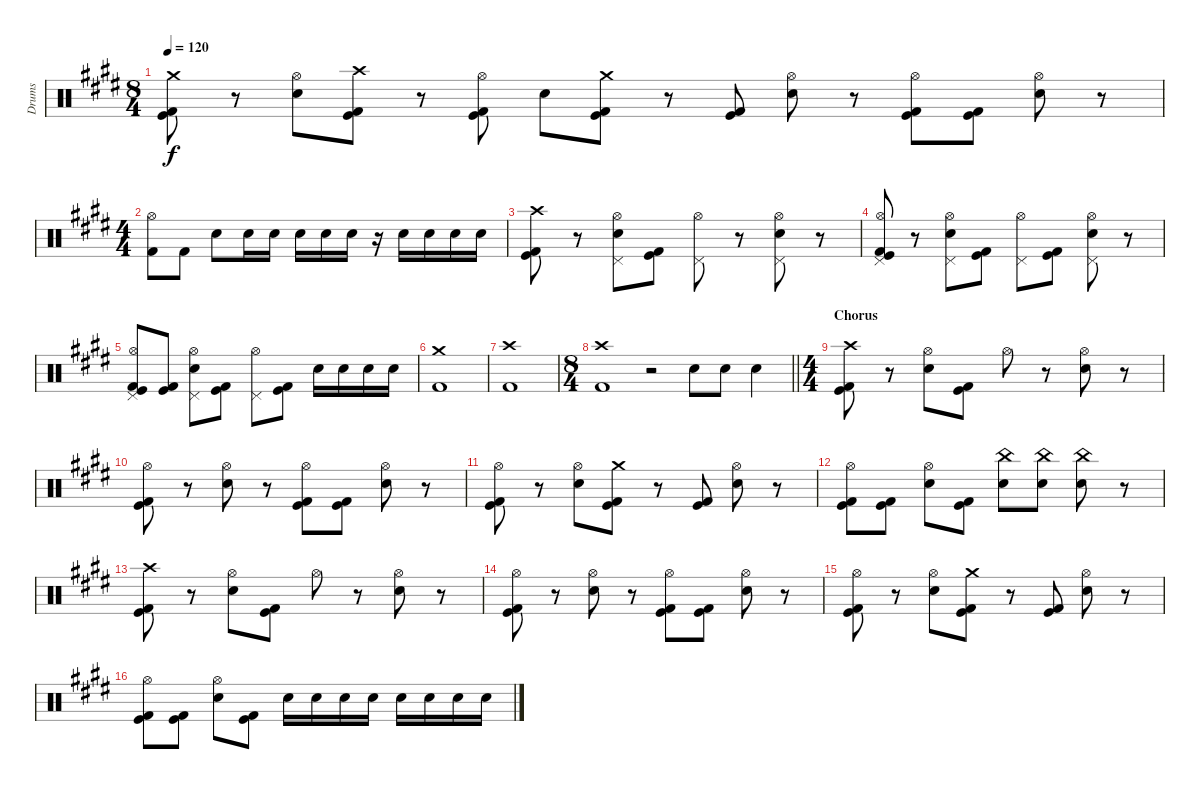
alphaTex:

\track ("Drums" "Drums") {instrument percussion}
\staff {score}
\articulation defaults
\ts (8 4)
\tempo 120
\clef neutral
\ks e
("Crash medium (hit)" "Kick (hit)" "Kick (hit) 2").8{dy f} r.8 ("Hi-Hat (open)" "Electric Snare (hit)").8 ("Crash high (hit)" "Kick (hit)" "Kick (hit) 2").8 r.8 ("Hi-Hat (open)" "Kick (hit)" "Kick (hit) 2").8 "Electric Snare (hit)".8 ("Crash medium (hit)" "Kick (hit)" "Kick (hit) 2").8 r.8 ("Kick (hit)" "Kick (hit) 2").8 ("Hi-Hat (open)" "Electric Snare (hit)").8 r.8 ("Hi-Hat (open)" "Kick (hit)" "Kick (hit) 2").8 ("Kick (hit)" "Kick (hit) 2").8 ("Hi-Hat (open)" "Electric Snare (hit)").8 r.8 |
\ts (4 4)
("Hi-Hat (open)" "Kick (hit) 2").8 "Kick (hit) 2".8 "Electric Snare (hit)".8 "Electric Snare (hit)".16 "Electric Snare (hit)".16 "Electric Snare (hit)".16 "Electric Snare (hit)".16 "Electric Snare (hit)".16 r.16 "Electric Snare (hit)".16 "Electric Snare (hit)".16 "Electric Snare (hit)".16 "Electric Snare (hit)".16 |
("Crash high (hit)" "Kick (hit)" "Kick (hit) 2").8 r.8 ("Hi-Hat (open)" "Pedal Hi-Hat (hit)" "Electric Snare (hit)").8 ("Kick (hit)" "Kick (hit) 2").8 ("Hi-Hat (open)" "Pedal Hi-Hat (hit)").8 r.8 ("Hi-Hat (open)" "Pedal Hi-Hat (hit)" "Electric Snare (hit)").8 r.8 |
("Hi-Hat (open)" "Pedal Hi-Hat (hit)" "Kick (hit)" "Kick (hit) 2").8 r.8 ("Hi-Hat (open)" "Pedal Hi-Hat (hit)" "Electric Snare (hit)").8 ("Kick (hit)" "Kick (hit) 2").8 ("Hi-Hat (open)" "Pedal Hi-Hat (hit)").8 ("Kick (hit) 2" "Kick (hit)").8 ("Hi-Hat (open)" "Pedal Hi-Hat (hit)" "Electric Snare (hit)").8 r.8 |
("Hi-Hat (open)" "Pedal Hi-Hat (hit)" "Kick (hit)" "Kick (hit) 2").8 ("Kick (hit) 2" "Kick (hit)").8 ("Hi-Hat (open)" "Pedal Hi-Hat (hit)" "Electric Snare (hit)").8 ("Kick (hit)" "Kick (hit) 2").8 ("Hi-Hat (open)" "Pedal Hi-Hat (hit)").8 ("Kick (hit)" "Kick (hit) 2").8 "Electric Snare (hit)".16 "Electric Snare (hit)".16 "Electric Snare (hit)".16 "Electric Snare (hit)".16 |
("Crash medium (hit)" "Kick (hit) 2").1 |
("Crash high (hit)" "Kick (hit) 2").1 |
\ts (8 4)
\barLineRight lightlight
("Crash high (hit)" "Kick (hit) 2").1 r.2 "Electric Snare (hit)".8 "Electric Snare (hit)".8 "Electric Snare (hit)".4 |
\ts (4 4)
\section ("" "Chorus")
("Crash high (hit)" "Kick (hit)" "Kick (hit) 2").8 r.8 ("Hi-Hat (open)" "Electric Snare (hit)").8 ("Kick (hit)" "Kick (hit) 2").8 "Hi-Hat (open)".8 r.8 ("Hi-Hat (open)" "Electric Snare (hit)").8 r.8 |
("Hi-Hat (open)" "Kick (hit)" "Kick (hit) 2").8 r.8 ("Hi-Hat (open)" "Electric Snare (hit)").8 r.8 ("Hi-Hat (open)" "Kick (hit)" "Kick (hit) 2").8 ("Kick (hit)" "Kick (hit) 2").8 ("Hi-Hat (open)" "Electric Snare (hit)").8 r.8 |
("Hi-Hat (open)" "Kick (hit)" "Kick (hit) 2").8 r.8 ("Hi-Hat (open)" "Electric Snare (hit)").8 ("Crash medium (hit)" "Kick (hit)" "Kick (hit) 2").8 r.8 ("Kick (hit) 2" "Kick (hit)").8 ("Hi-Hat (open)" "Electric Snare (hit)").8 r.8 |
("Hi-Hat (open)" "Kick (hit)" "Kick (hit) 2").8 ("Kick (hit) 2" "Kick (hit)").8 ("Hi-Hat (open)" "Electric Snare (hit)").8 ("Kick (hit)" "Kick (hit) 2").8 ("China (hit)" "Electric Snare (hit)").8 ("China (hit)" "Electric Snare (hit)").8 ("China (hit)" "Electric Snare (hit)").8 r.8 |
("Crash high (hit)" "Kick (hit)" "Kick (hit) 2").8 r.8 ("Hi-Hat (open)" "Electric Snare (hit)").8 ("Kick (hit)" "Kick (hit) 2").8 "Hi-Hat (open)".8 r.8 ("Hi-Hat (open)" "Electric Snare (hit)").8 r.8 |
("Hi-Hat (open)" "Kick (hit)" "Kick (hit) 2").8 r.8 ("Hi-Hat (open)" "Electric Snare (hit)").8 r.8 ("Hi-Hat (open)" "Kick (hit)" "Kick (hit) 2").8 ("Kick (hit)" "Kick (hit) 2").8 ("Hi-Hat (open)" "Electric Snare (hit)").8 r.8 |
("Hi-Hat (open)" "Kick (hit)" "Kick (hit) 2").8 r.8 ("Hi-Hat (open)" "Electric Snare (hit)").8 ("Crash medium (hit)" "Kick (hit)" "Kick (hit) 2").8 r.8 ("Kick (hit) 2" "Kick (hit)").8 ("Hi-Hat (open)" "Electric Snare (hit)").8 r.8 |
("Hi-Hat (open)" "Kick (hit)" "Kick (hit) 2").8 ("Kick (hit) 2" "Kick (hit)").8 ("Hi-Hat (open)" "Electric Snare (hit)").8 ("Kick (hit)" "Kick (hit) 2").8 "Electric Snare (hit)".16 "Electric Snare (hit)".16 "Electric Snare (hit)".16 "Electric Snare (hit)".16 "Electric Snare (hit)".16 "Electric Snare (hit)".16 "Electric Snare (hit)".16 "Electric Snare (hit)".16
